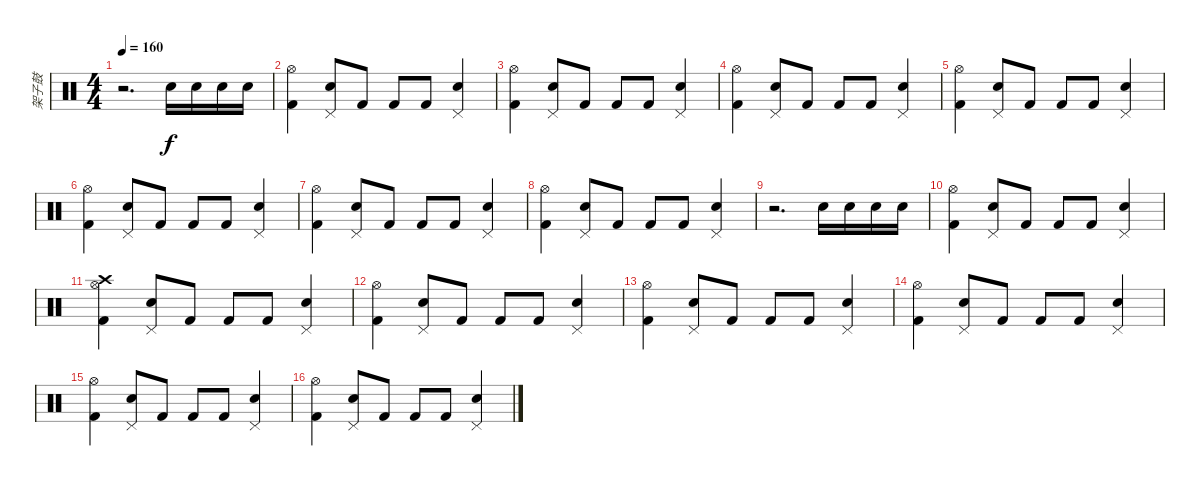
\track ("架子鼓" "架子鼓") {instrument percussion}
\staff {score}
\articulation defaults
\ts (4 4)
\tempo 160
\clef neutral
\ks c
r.2{d dy f} "Electric Snare (hit)".16 "Electric Snare (hit)".16 "Electric Snare (hit)".16 "Electric Snare (hit)".16 |
("Kick (hit) 2" "Hi-Hat (open)").4 ("Electric Snare (hit)" "Pedal Hi-Hat (hit)").8 "Kick (hit) 2".8 "Kick (hit) 2".8 "Kick (hit) 2".8 ("Electric Snare (hit)" "Pedal Hi-Hat (hit)").4 |
("Kick (hit) 2" "Hi-Hat (open)").4 ("Electric Snare (hit)" "Pedal Hi-Hat (hit)").8 "Kick (hit) 2".8 "Kick (hit) 2".8 "Kick (hit) 2".8 ("Electric Snare (hit)" "Pedal Hi-Hat (hit)").4 |
("Kick (hit) 2" "Hi-Hat (open)").4 ("Electric Snare (hit)" "Pedal Hi-Hat (hit)").8 "Kick (hit) 2".8 "Kick (hit) 2".8 "Kick (hit) 2".8 ("Electric Snare (hit)" "Pedal Hi-Hat (hit)").4 |
("Kick (hit) 2" "Hi-Hat (open)").4 ("Electric Snare (hit)" "Pedal Hi-Hat (hit)").8 "Kick (hit) 2".8 "Kick (hit) 2".8 "Kick (hit) 2".8 ("Electric Snare (hit)" "Pedal Hi-Hat (hit)").4 |
("Kick (hit) 2" "Hi-Hat (open)").4 ("Electric Snare (hit)" "Pedal Hi-Hat (hit)").8 "Kick (hit) 2".8 "Kick (hit) 2".8 "Kick (hit) 2".8 ("Electric Snare (hit)" "Pedal Hi-Hat (hit)").4 |
("Kick (hit) 2" "Hi-Hat (open)").4 ("Electric Snare (hit)" "Pedal Hi-Hat (hit)").8 "Kick (hit) 2".8 "Kick (hit) 2".8 "Kick (hit) 2".8 ("Electric Snare (hit)" "Pedal Hi-Hat (hit)").4 |
("Kick (hit) 2" "Hi-Hat (open)").4 ("Electric Snare (hit)" "Pedal Hi-Hat (hit)").8 "Kick (hit) 2".8 "Kick (hit) 2".8 "Kick (hit) 2".8 ("Electric Snare (hit)" "Pedal Hi-Hat (hit)").4 |
r.2{d} "Electric Snare (hit)".16 "Electric Snare (hit)".16 "Electric Snare (hit)".16 "Electric Snare (hit)".16 |
("Kick (hit) 2" "Hi-Hat (open)").4 ("Electric Snare (hit)" "Pedal Hi-Hat (hit)").8 "Kick (hit) 2".8 "Kick (hit) 2".8 "Kick (hit) 2".8 ("Electric Snare (hit)" "Pedal Hi-Hat (hit)").4 |
("Kick (hit) 2" "Hi-Hat (open)" "Crash high (hit)").4 ("Electric Snare (hit)" "Pedal Hi-Hat (hit)").8 "Kick (hit) 2".8 "Kick (hit) 2".8 "Kick (hit) 2".8 ("Electric Snare (hit)" "Pedal Hi-Hat (hit)").4 |
("Kick (hit) 2" "Hi-Hat (open)").4 ("Electric Snare (hit)" "Pedal Hi-Hat (hit)").8 "Kick (hit) 2".8 "Kick (hit) 2".8 "Kick (hit) 2".8 ("Electric Snare (hit)" "Pedal Hi-Hat (hit)").4 |
("Kick (hit) 2" "Hi-Hat (open)").4 ("Electric Snare (hit)" "Pedal Hi-Hat (hit)").8 "Kick (hit) 2".8 "Kick (hit) 2".8 "Kick (hit) 2".8 ("Electric Snare (hit)" "Pedal Hi-Hat (hit)").4 |
("Kick (hit) 2" "Hi-Hat (open)").4 ("Electric Snare (hit)" "Pedal Hi-Hat (hit)").8 "Kick (hit) 2".8 "Kick (hit) 2".8 "Kick (hit) 2".8 ("Electric Snare (hit)" "Pedal Hi-Hat (hit)").4 |
("Kick (hit) 2" "Hi-Hat (open)").4 ("Electric Snare (hit)" "Pedal Hi-Hat (hit)").8 "Kick (hit) 2".8 "Kick (hit) 2".8 "Kick (hit) 2".8 ("Electric Snare (hit)" "Pedal Hi-Hat (hit)").4 |
("Kick (hit) 2" "Hi-Hat (open)").4 ("Electric Snare (hit)" "Pedal Hi-Hat (hit)").8 "Kick (hit) 2".8 "Kick (hit) 2".8 "Kick (hit) 2".8 ("Electric Snare (hit)" "Pedal Hi-Hat (hit)").4
